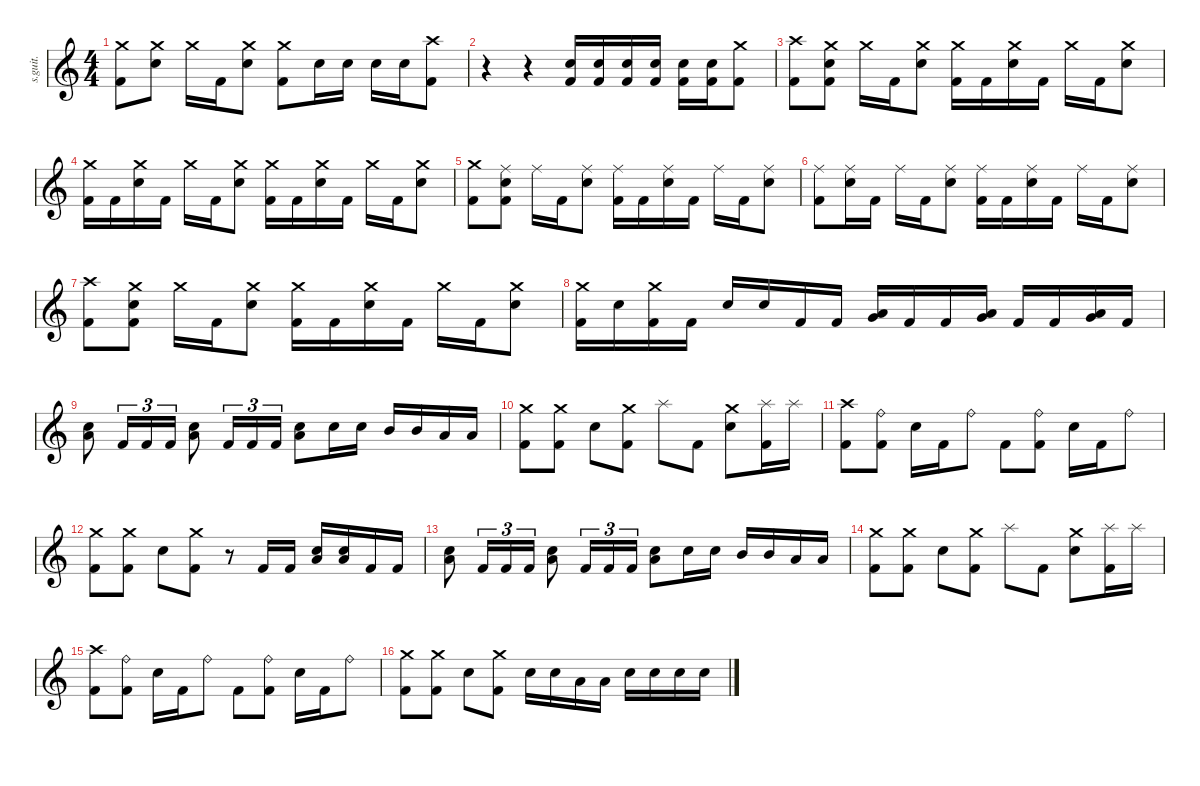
\defaultSystemsLayout 4
\hideDynamics
\bracketExtendMode nobrackets
\track ("The Rev" "s.guit.") {instrument percussion}
\staff {score}
\articulation defaults
\ts (4 4)
\tempo (125 hide)
\clef g2
\ks c
("Crash medium (hit)" "Kick (hit) 2").8{lyrics (0 "") lyrics (1 "") lyrics (2 "") lyrics (3 "") lyrics (4 "") dy f} ("Crash medium (hit)" "Electric Snare (hit)").8{lyrics (0 "") lyrics (1 "") lyrics (2 "") lyrics (3 "") lyrics (4 "")} "Crash medium (hit)".16{lyrics (0 "") lyrics (1 "") lyrics (2 "") lyrics (3 "") lyrics (4 "") dy mp} "Kick (hit) 2".16{lyrics (0 "") lyrics (1 "") lyrics (2 "") lyrics (3 "") lyrics (4 "") dy fff} ("Crash medium (hit)" "Electric Snare (hit)").8{lyrics (0 "") lyrics (1 "") lyrics (2 "") lyrics (3 "") lyrics (4 "") dy f} ("Crash medium (hit)" "Kick (hit) 2").8{lyrics (0 "") lyrics (1 "") lyrics (2 "") lyrics (3 "") lyrics (4 "")} "Electric Snare (hit)".16{lyrics (0 "") lyrics (1 "") lyrics (2 "") lyrics (3 "") lyrics (4 "")} "Electric Snare (hit)".16{lyrics (0 "") lyrics (1 "") lyrics (2 "") lyrics (3 "") lyrics (4 "")} "Electric Snare (hit)".16{lyrics (0 "") lyrics (1 "") lyrics (2 "") lyrics (3 "") lyrics (4 "")} "Electric Snare (hit)".16{lyrics (0 "") lyrics (1 "") lyrics (2 "") lyrics (3 "") lyrics (4 "")} ("Crash high (hit)" "Kick (hit) 2").8{lyrics (0 "") lyrics (1 "") lyrics (2 "") lyrics (3 "") lyrics (4 "")} |
r.4 r.4 ("Electric Snare (hit)" "Kick (hit) 2").16{lyrics (0 "") lyrics (1 "") lyrics (2 "") lyrics (3 "") lyrics (4 "")} ("Electric Snare (hit)" "Kick (hit) 2").16{lyrics (0 "") lyrics (1 "") lyrics (2 "") lyrics (3 "") lyrics (4 "")} ("Electric Snare (hit)" "Kick (hit) 2").16{lyrics (0 "") lyrics (1 "") lyrics (2 "") lyrics (3 "") lyrics (4 "")} ("Electric Snare (hit)" "Kick (hit) 2").16{lyrics (0 "") lyrics (1 "") lyrics (2 "") lyrics (3 "") lyrics (4 "")} ("Electric Snare (hit)" "Kick (hit) 2").16{lyrics (0 "") lyrics (1 "") lyrics (2 "") lyrics (3 "") lyrics (4 "")} ("Electric Snare (hit)" "Kick (hit) 2").16{lyrics (0 "") lyrics (1 "") lyrics (2 "") lyrics (3 "") lyrics (4 "")} ("Crash medium (hit)" "Kick (hit) 2").8{lyrics (0 "") lyrics (1 "") lyrics (2 "") lyrics (3 "") lyrics (4 "")} |
("Crash high (hit)" "Kick (hit) 2").8{lyrics (0 "") lyrics (1 "") lyrics (2 "") lyrics (3 "") lyrics (4 "") dy fff} ("Crash medium (hit)" "Electric Snare (hit)" "Kick (hit) 2").8{lyrics (0 "") lyrics (1 "") lyrics (2 "") lyrics (3 "") lyrics (4 "") dy f} "Crash medium (hit)".16{lyrics (0 "") lyrics (1 "") lyrics (2 "") lyrics (3 "") lyrics (4 "") dy mp} "Kick (hit) 2".16{lyrics (0 "") lyrics (1 "") lyrics (2 "") lyrics (3 "") lyrics (4 "") dy fff} ("Crash medium (hit)" "Electric Snare (hit)").8{lyrics (0 "") lyrics (1 "") lyrics (2 "") lyrics (3 "") lyrics (4 "") dy f} ("Crash medium (hit)" "Kick (hit) 2").16{lyrics (0 "") lyrics (1 "") lyrics (2 "") lyrics (3 "") lyrics (4 "") dy mp} "Kick (hit) 2".16{lyrics (0 "") lyrics (1 "") lyrics (2 "") lyrics (3 "") lyrics (4 "") dy fff} ("Crash medium (hit)" "Electric Snare (hit)").16{lyrics (0 "") lyrics (1 "") lyrics (2 "") lyrics (3 "") lyrics (4 "") dy f} "Kick (hit) 2".16{lyrics (0 "") lyrics (1 "") lyrics (2 "") lyrics (3 "") lyrics (4 "") dy fff} "Crash medium (hit)".16{lyrics (0 "") lyrics (1 "") lyrics (2 "") lyrics (3 "") lyrics (4 "") dy mp} "Kick (hit) 2".16{lyrics (0 "") lyrics (1 "") lyrics (2 "") lyrics (3 "") lyrics (4 "") dy fff} ("Crash medium (hit)" "Electric Snare (hit)").8{lyrics (0 "") lyrics (1 "") lyrics (2 "") lyrics (3 "") lyrics (4 "") dy f} |
("Crash medium (hit)" "Kick (hit) 2").16{lyrics (0 "") lyrics (1 "") lyrics (2 "") lyrics (3 "") lyrics (4 "") dy mp} "Kick (hit) 2".16{lyrics (0 "") lyrics (1 "") lyrics (2 "") lyrics (3 "") lyrics (4 "") dy fff} ("Crash medium (hit)" "Electric Snare (hit)").16{lyrics (0 "") lyrics (1 "") lyrics (2 "") lyrics (3 "") lyrics (4 "") dy f} "Kick (hit) 2".16{lyrics (0 "") lyrics (1 "") lyrics (2 "") lyrics (3 "") lyrics (4 "") dy fff} "Crash medium (hit)".16{lyrics (0 "") lyrics (1 "") lyrics (2 "") lyrics (3 "") lyrics (4 "") dy mp} "Kick (hit) 2".16{lyrics (0 "") lyrics (1 "") lyrics (2 "") lyrics (3 "") lyrics (4 "") dy fff} ("Crash medium (hit)" "Electric Snare (hit)").8{lyrics (0 "") lyrics (1 "") lyrics (2 "") lyrics (3 "") lyrics (4 "") dy f} ("Crash medium (hit)" "Kick (hit) 2").16{lyrics (0 "") lyrics (1 "") lyrics (2 "") lyrics (3 "") lyrics (4 "") dy mp} "Kick (hit) 2".16{lyrics (0 "") lyrics (1 "") lyrics (2 "") lyrics (3 "") lyrics (4 "") dy fff} ("Crash medium (hit)" "Electric Snare (hit)").16{lyrics (0 "") lyrics (1 "") lyrics (2 "") lyrics (3 "") lyrics (4 "") dy f} "Kick (hit) 2".16{lyrics (0 "") lyrics (1 "") lyrics (2 "") lyrics (3 "") lyrics (4 "") dy fff} "Crash medium (hit)".16{lyrics (0 "") lyrics (1 "") lyrics (2 "") lyrics (3 "") lyrics (4 "") dy mp} "Kick (hit) 2".16{lyrics (0 "") lyrics (1 "") lyrics (2 "") lyrics (3 "") lyrics (4 "") dy fff} ("Crash medium (hit)" "Electric Snare (hit)").8{lyrics (0 "") lyrics (1 "") lyrics (2 "") lyrics (3 "") lyrics (4 "") dy f} |
("Crash medium (hit)" "Kick (hit) 2").8{lyrics (0 "") lyrics (1 "") lyrics (2 "") lyrics (3 "") lyrics (4 "")} ("Ride (middle)" "Electric Snare (hit)" "Kick (hit) 2").8{lyrics (0 "") lyrics (1 "") lyrics (2 "") lyrics (3 "") lyrics (4 "")} "Ride (middle)".16{lyrics (0 "") lyrics (1 "") lyrics (2 "") lyrics (3 "") lyrics (4 "") dy mp} "Kick (hit) 2".16{lyrics (0 "") lyrics (1 "") lyrics (2 "") lyrics (3 "") lyrics (4 "") dy fff} ("Ride (middle)" "Electric Snare (hit)").8{lyrics (0 "") lyrics (1 "") lyrics (2 "") lyrics (3 "") lyrics (4 "") dy f} ("Ride (middle)" "Kick (hit) 2").16{lyrics (0 "") lyrics (1 "") lyrics (2 "") lyrics (3 "") lyrics (4 "") dy mp} "Kick (hit) 2".16{lyrics (0 "") lyrics (1 "") lyrics (2 "") lyrics (3 "") lyrics (4 "") dy fff} ("Ride (middle)" "Electric Snare (hit)").16{lyrics (0 "") lyrics (1 "") lyrics (2 "") lyrics (3 "") lyrics (4 "") dy f} "Kick (hit) 2".16{lyrics (0 "") lyrics (1 "") lyrics (2 "") lyrics (3 "") lyrics (4 "") dy fff} "Ride (middle)".16{lyrics (0 "") lyrics (1 "") lyrics (2 "") lyrics (3 "") lyrics (4 "") dy mp} "Kick (hit) 2".16{lyrics (0 "") lyrics (1 "") lyrics (2 "") lyrics (3 "") lyrics (4 "") dy fff} ("Ride (middle)" "Electric Snare (hit)").8{lyrics (0 "") lyrics (1 "") lyrics (2 "") lyrics (3 "") lyrics (4 "") dy f} |
("Ride (middle)" "Kick (hit) 2").8{lyrics (0 "") lyrics (1 "") lyrics (2 "") lyrics (3 "") lyrics (4 "") dy mp} ("Ride (middle)" "Electric Snare (hit)").16{lyrics (0 "") lyrics (1 "") lyrics (2 "") lyrics (3 "") lyrics (4 "") dy f} "Kick (hit) 2".16{lyrics (0 "") lyrics (1 "") lyrics (2 "") lyrics (3 "") lyrics (4 "") dy fff} "Ride (middle)".16{lyrics (0 "") lyrics (1 "") lyrics (2 "") lyrics (3 "") lyrics (4 "") dy mp} "Kick (hit) 2".16{lyrics (0 "") lyrics (1 "") lyrics (2 "") lyrics (3 "") lyrics (4 "") dy fff} ("Ride (middle)" "Electric Snare (hit)").8{lyrics (0 "") lyrics (1 "") lyrics (2 "") lyrics (3 "") lyrics (4 "") dy f} ("Ride (middle)" "Kick (hit) 2").16{lyrics (0 "") lyrics (1 "") lyrics (2 "") lyrics (3 "") lyrics (4 "") dy mp} "Kick (hit) 2".16{lyrics (0 "") lyrics (1 "") lyrics (2 "") lyrics (3 "") lyrics (4 "") dy fff} ("Ride (middle)" "Electric Snare (hit)").16{lyrics (0 "") lyrics (1 "") lyrics (2 "") lyrics (3 "") lyrics (4 "") dy f} "Kick (hit) 2".16{lyrics (0 "") lyrics (1 "") lyrics (2 "") lyrics (3 "") lyrics (4 "") dy fff} "Ride (middle)".16{lyrics (0 "") lyrics (1 "") lyrics (2 "") lyrics (3 "") lyrics (4 "") dy mp} "Kick (hit) 2".16{lyrics (0 "") lyrics (1 "") lyrics (2 "") lyrics (3 "") lyrics (4 "") dy fff} ("Ride (middle)" "Electric Snare (hit)").8{lyrics (0 "") lyrics (1 "") lyrics (2 "") lyrics (3 "") lyrics (4 "") dy f} |
("Crash high (hit)" "Kick (hit) 2").8{lyrics (0 "") lyrics (1 "") lyrics (2 "") lyrics (3 "") lyrics (4 "")} ("Crash medium (hit)" "Electric Snare (hit)" "Kick (hit) 2").8{lyrics (0 "") lyrics (1 "") lyrics (2 "") lyrics (3 "") lyrics (4 "")} "Crash medium (hit)".16{lyrics (0 "") lyrics (1 "") lyrics (2 "") lyrics (3 "") lyrics (4 "") dy mp} "Kick (hit) 2".16{lyrics (0 "") lyrics (1 "") lyrics (2 "") lyrics (3 "") lyrics (4 "") dy fff} ("Crash medium (hit)" "Electric Snare (hit)").8{lyrics (0 "") lyrics (1 "") lyrics (2 "") lyrics (3 "") lyrics (4 "") dy f} ("Crash medium (hit)" "Kick (hit) 2").16{lyrics (0 "") lyrics (1 "") lyrics (2 "") lyrics (3 "") lyrics (4 "") dy mp} "Kick (hit) 2".16{lyrics (0 "") lyrics (1 "") lyrics (2 "") lyrics (3 "") lyrics (4 "") dy fff} ("Crash medium (hit)" "Electric Snare (hit)").16{lyrics (0 "") lyrics (1 "") lyrics (2 "") lyrics (3 "") lyrics (4 "") dy f} "Kick (hit) 2".16{lyrics (0 "") lyrics (1 "") lyrics (2 "") lyrics (3 "") lyrics (4 "") dy fff} "Crash medium (hit)".16{lyrics (0 "") lyrics (1 "") lyrics (2 "") lyrics (3 "") lyrics (4 "") dy mp} "Kick (hit) 2".16{lyrics (0 "") lyrics (1 "") lyrics (2 "") lyrics (3 "") lyrics (4 "") dy fff} ("Crash medium (hit)" "Electric Snare (hit)").8{lyrics (0 "") lyrics (1 "") lyrics (2 "") lyrics (3 "") lyrics (4 "") dy f} |
("Crash medium (hit)" "Kick (hit) 2").16{lyrics (0 "") lyrics (1 "") lyrics (2 "") lyrics (3 "") lyrics (4 "") dy mp} "Electric Snare (hit)".16{lyrics (0 "") lyrics (1 "") lyrics (2 "") lyrics (3 "") lyrics (4 "") dy f} ("Crash medium (hit)" "Kick (hit) 2").16{lyrics (0 "") lyrics (1 "") lyrics (2 "") lyrics (3 "") lyrics (4 "") dy mp} "Kick (hit) 2".16{lyrics (0 "") lyrics (1 "") lyrics (2 "") lyrics (3 "") lyrics (4 "") dy fff} "Electric Snare (hit)".16{lyrics (0 "") lyrics (1 "") lyrics (2 "") lyrics (3 "") lyrics (4 "") dy ff} "Electric Snare (hit)".16{lyrics (0 "") lyrics (1 "") lyrics (2 "") lyrics (3 "") lyrics (4 "")} "Kick (hit) 2".16{lyrics (0 "") lyrics (1 "") lyrics (2 "") lyrics (3 "") lyrics (4 "") dy fff} "Kick (hit) 2".16{lyrics (0 "") lyrics (1 "") lyrics (2 "") lyrics (3 "") lyrics (4 "")} ("Very Low Tom (hit)" "Low Floor Tom (hit)").16{lyrics (0 "") lyrics (1 "") lyrics (2 "") lyrics (3 "") lyrics (4 "") dy f} "Kick (hit) 2".16{lyrics (0 "") lyrics (1 "") lyrics (2 "") lyrics (3 "") lyrics (4 "") dy fff} "Kick (hit) 2".16{lyrics (0 "") lyrics (1 "") lyrics (2 "") lyrics (3 "") lyrics (4 "")} ("Very Low Tom (hit)" "Low Floor Tom (hit)").16{lyrics (0 "") lyrics (1 "") lyrics (2 "") lyrics (3 "") lyrics (4 "") dy f} "Kick (hit) 2".16{lyrics (0 "") lyrics (1 "") lyrics (2 "") lyrics (3 "") lyrics (4 "") dy fff} "Kick (hit) 2".16{lyrics (0 "") lyrics (1 "") lyrics (2 "") lyrics (3 "") lyrics (4 "")} ("Very Low Tom (hit)" "Low Floor Tom (hit)").16{lyrics (0 "") lyrics (1 "") lyrics (2 "") lyrics (3 "") lyrics (4 "") dy f} "Kick (hit) 2".16{lyrics (0 "") lyrics (1 "") lyrics (2 "") lyrics (3 "") lyrics (4 "") dy fff} |
("Electric Snare (hit)" "Low Floor Tom (hit)").8{lyrics (0 "") lyrics (1 "") lyrics (2 "") lyrics (3 "") lyrics (4 "") dy f} "Kick (hit) 2".16{tu (3 2) lyrics (0 "") lyrics (1 "") lyrics (2 "") lyrics (3 "") lyrics (4 "") dy fff} "Kick (hit) 2".16{tu (3 2) lyrics (0 "") lyrics (1 "") lyrics (2 "") lyrics (3 "") lyrics (4 "")} "Kick (hit) 2".16{tu (3 2) lyrics (0 "") lyrics (1 "") lyrics (2 "") lyrics (3 "") lyrics (4 "")} ("Electric Snare (hit)" "Low Floor Tom (hit)").8{lyrics (0 "") lyrics (1 "") lyrics (2 "") lyrics (3 "") lyrics (4 "") dy f} "Kick (hit) 2".16{tu (3 2) lyrics (0 "") lyrics (1 "") lyrics (2 "") lyrics (3 "") lyrics (4 "") dy fff} "Kick (hit) 2".16{tu (3 2) lyrics (0 "") lyrics (1 "") lyrics (2 "") lyrics (3 "") lyrics (4 "")} "Kick (hit) 2".16{tu (3 2) lyrics (0 "") lyrics (1 "") lyrics (2 "") lyrics (3 "") lyrics (4 "")} ("Electric Snare (hit)" "Low Floor Tom (hit)").8{lyrics (0 "") lyrics (1 "") lyrics (2 "") lyrics (3 "") lyrics (4 "") dy f} "Electric Snare (hit)".16{lyrics (0 "") lyrics (1 "") lyrics (2 "") lyrics (3 "") lyrics (4 "") dy ff} "Electric Snare (hit)".16{lyrics (0 "") lyrics (1 "") lyrics (2 "") lyrics (3 "") lyrics (4 "")} "Mid Tom (hit)".16{lyrics (0 "") lyrics (1 "") lyrics (2 "") lyrics (3 "") lyrics (4 "") dy fff} "Mid Tom (hit)".16{lyrics (0 "") lyrics (1 "") lyrics (2 "") lyrics (3 "") lyrics (4 "")} "Low Tom (hit)".16{lyrics (0 "") lyrics (1 "") lyrics (2 "") lyrics (3 "") lyrics (4 "")} "Low Tom (hit)".16{lyrics (0 "") lyrics (1 "") lyrics (2 "") lyrics (3 "") lyrics (4 "")} |
("Crash medium (hit)" "Kick (hit) 2").8{lyrics (0 "") lyrics (1 "") lyrics (2 "") lyrics (3 "") lyrics (4 "")} ("Crash medium (hit)" "Kick (hit) 2").8{lyrics (0 "") lyrics (1 "") lyrics (2 "") lyrics (3 "") lyrics (4 "")} "Electric Snare (hit)".8{lyrics (0 "") lyrics (1 "") lyrics (2 "") lyrics (3 "") lyrics (4 "") dy f} ("Crash medium (hit)" "Kick (hit) 2").8{lyrics (0 "") lyrics (1 "") lyrics (2 "") lyrics (3 "") lyrics (4 "")} "Splash (hit)".8{lyrics (0 "") lyrics (1 "") lyrics (2 "") lyrics (3 "") lyrics (4 "") dy mf} "Kick (hit) 2".8{lyrics (0 "") lyrics (1 "") lyrics (2 "") lyrics (3 "") lyrics (4 "") dy fff} ("Crash medium (hit)" "Electric Snare (hit)").8{lyrics (0 "") lyrics (1 "") lyrics (2 "") lyrics (3 "") lyrics (4 "") dy f} ("Splash (hit)" "Kick (hit) 2").16{lyrics (0 "") lyrics (1 "") lyrics (2 "") lyrics (3 "") lyrics (4 "") dy mf} "Splash (hit)".16{lyrics (0 "") lyrics (1 "") lyrics (2 "") lyrics (3 "") lyrics (4 "")} |
("Crash high (hit)" "Kick (hit) 2").8{lyrics (0 "") lyrics (1 "") lyrics (2 "") lyrics (3 "") lyrics (4 "") dy f} ("Ride (bell)" "Kick (hit) 2").8{lyrics (0 "") lyrics (1 "") lyrics (2 "") lyrics (3 "") lyrics (4 "")} "Electric Snare (hit)".16{lyrics (0 "") lyrics (1 "") lyrics (2 "") lyrics (3 "") lyrics (4 "")} "Kick (hit) 2".16{lyrics (0 "") lyrics (1 "") lyrics (2 "") lyrics (3 "") lyrics (4 "") dy fff} "Ride (bell)".8{lyrics (0 "") lyrics (1 "") lyrics (2 "") lyrics (3 "") lyrics (4 "") dy f} "Kick (hit) 2".8{lyrics (0 "") lyrics (1 "") lyrics (2 "") lyrics (3 "") lyrics (4 "") dy fff} ("Ride (bell)" "Kick (hit) 2").8{lyrics (0 "") lyrics (1 "") lyrics (2 "") lyrics (3 "") lyrics (4 "")} "Electric Snare (hit)".16{lyrics (0 "") lyrics (1 "") lyrics (2 "") lyrics (3 "") lyrics (4 "") dy f} "Kick (hit) 2".16{lyrics (0 "") lyrics (1 "") lyrics (2 "") lyrics (3 "") lyrics (4 "") dy fff} "Ride (bell)".8{lyrics (0 "") lyrics (1 "") lyrics (2 "") lyrics (3 "") lyrics (4 "") dy f} |
("Crash medium (hit)" "Kick (hit) 2").8{lyrics (0 "") lyrics (1 "") lyrics (2 "") lyrics (3 "") lyrics (4 "")} ("Crash medium (hit)" "Kick (hit) 2").8{lyrics (0 "") lyrics (1 "") lyrics (2 "") lyrics (3 "") lyrics (4 "")} "Electric Snare (hit)".8{lyrics (0 "") lyrics (1 "") lyrics (2 "") lyrics (3 "") lyrics (4 "")} ("Crash medium (hit)" "Kick (hit) 2").8{lyrics (0 "") lyrics (1 "") lyrics (2 "") lyrics (3 "") lyrics (4 "")} r.8 "Kick (hit) 2".16{lyrics (0 "") lyrics (1 "") lyrics (2 "") lyrics (3 "") lyrics (4 "") dy fff} "Kick (hit) 2".16{lyrics (0 "") lyrics (1 "") lyrics (2 "") lyrics (3 "") lyrics (4 "")} ("Electric Snare (hit)" "Low Floor Tom (hit)").16{lyrics (0 "") lyrics (1 "") lyrics (2 "") lyrics (3 "") lyrics (4 "") dy f} ("Electric Snare (hit)" "Low Floor Tom (hit)").16{lyrics (0 "") lyrics (1 "") lyrics (2 "") lyrics (3 "") lyrics (4 "")} "Kick (hit) 2".16{lyrics (0 "") lyrics (1 "") lyrics (2 "") lyrics (3 "") lyrics (4 "") dy fff} "Kick (hit) 2".16{lyrics (0 "") lyrics (1 "") lyrics (2 "") lyrics (3 "") lyrics (4 "")} |
("Electric Snare (hit)" "Low Floor Tom (hit)").8{lyrics (0 "") lyrics (1 "") lyrics (2 "") lyrics (3 "") lyrics (4 "") dy f} "Kick (hit) 2".16{tu (3 2) lyrics (0 "") lyrics (1 "") lyrics (2 "") lyrics (3 "") lyrics (4 "") dy fff} "Kick (hit) 2".16{tu (3 2) lyrics (0 "") lyrics (1 "") lyrics (2 "") lyrics (3 "") lyrics (4 "")} "Kick (hit) 2".16{tu (3 2) lyrics (0 "") lyrics (1 "") lyrics (2 "") lyrics (3 "") lyrics (4 "")} ("Electric Snare (hit)" "Low Floor Tom (hit)").8{lyrics (0 "") lyrics (1 "") lyrics (2 "") lyrics (3 "") lyrics (4 "") dy f} "Kick (hit) 2".16{tu (3 2) lyrics (0 "") lyrics (1 "") lyrics (2 "") lyrics (3 "") lyrics (4 "") dy fff} "Kick (hit) 2".16{tu (3 2) lyrics (0 "") lyrics (1 "") lyrics (2 "") lyrics (3 "") lyrics (4 "")} "Kick (hit) 2".16{tu (3 2) lyrics (0 "") lyrics (1 "") lyrics (2 "") lyrics (3 "") lyrics (4 "")} ("Electric Snare (hit)" "Low Floor Tom (hit)").8{lyrics (0 "") lyrics (1 "") lyrics (2 "") lyrics (3 "") lyrics (4 "") dy f} "Electric Snare (hit)".16{lyrics (0 "") lyrics (1 "") lyrics (2 "") lyrics (3 "") lyrics (4 "") dy ff} "Electric Snare (hit)".16{lyrics (0 "") lyrics (1 "") lyrics (2 "") lyrics (3 "") lyrics (4 "")} "Mid Tom (hit)".16{lyrics (0 "") lyrics (1 "") lyrics (2 "") lyrics (3 "") lyrics (4 "") dy fff} "Mid Tom (hit)".16{lyrics (0 "") lyrics (1 "") lyrics (2 "") lyrics (3 "") lyrics (4 "")} "Low Tom (hit)".16{lyrics (0 "") lyrics (1 "") lyrics (2 "") lyrics (3 "") lyrics (4 "")} "Low Tom (hit)".16{lyrics (0 "") lyrics (1 "") lyrics (2 "") lyrics (3 "") lyrics (4 "")} |
("Crash medium (hit)" "Kick (hit) 2").8{lyrics (0 "") lyrics (1 "") lyrics (2 "") lyrics (3 "") lyrics (4 "")} ("Crash medium (hit)" "Kick (hit) 2").8{lyrics (0 "") lyrics (1 "") lyrics (2 "") lyrics (3 "") lyrics (4 "")} "Electric Snare (hit)".8{lyrics (0 "") lyrics (1 "") lyrics (2 "") lyrics (3 "") lyrics (4 "") dy f} ("Crash medium (hit)" "Kick (hit) 2").8{lyrics (0 "") lyrics (1 "") lyrics (2 "") lyrics (3 "") lyrics (4 "")} "Splash (hit)".8{lyrics (0 "") lyrics (1 "") lyrics (2 "") lyrics (3 "") lyrics (4 "") dy mf} "Kick (hit) 2".8{lyrics (0 "") lyrics (1 "") lyrics (2 "") lyrics (3 "") lyrics (4 "") dy fff} ("Crash medium (hit)" "Electric Snare (hit)").8{lyrics (0 "") lyrics (1 "") lyrics (2 "") lyrics (3 "") lyrics (4 "") dy f} ("Splash (hit)" "Kick (hit) 2").16{lyrics (0 "") lyrics (1 "") lyrics (2 "") lyrics (3 "") lyrics (4 "") dy mf} "Splash (hit)".16{lyrics (0 "") lyrics (1 "") lyrics (2 "") lyrics (3 "") lyrics (4 "")} |
("Crash high (hit)" "Kick (hit) 2").8{lyrics (0 "") lyrics (1 "") lyrics (2 "") lyrics (3 "") lyrics (4 "") dy f} ("Ride (bell)" "Kick (hit) 2").8{lyrics (0 "") lyrics (1 "") lyrics (2 "") lyrics (3 "") lyrics (4 "")} "Electric Snare (hit)".16{lyrics (0 "") lyrics (1 "") lyrics (2 "") lyrics (3 "") lyrics (4 "")} "Kick (hit) 2".16{lyrics (0 "") lyrics (1 "") lyrics (2 "") lyrics (3 "") lyrics (4 "") dy fff} "Ride (bell)".8{lyrics (0 "") lyrics (1 "") lyrics (2 "") lyrics (3 "") lyrics (4 "") dy f} "Kick (hit) 2".8{lyrics (0 "") lyrics (1 "") lyrics (2 "") lyrics (3 "") lyrics (4 "") dy fff} ("Ride (bell)" "Kick (hit) 2").8{lyrics (0 "") lyrics (1 "") lyrics (2 "") lyrics (3 "") lyrics (4 "")} "Electric Snare (hit)".16{lyrics (0 "") lyrics (1 "") lyrics (2 "") lyrics (3 "") lyrics (4 "") dy f} "Kick (hit) 2".16{lyrics (0 "") lyrics (1 "") lyrics (2 "") lyrics (3 "") lyrics (4 "") dy fff} "Ride (bell)".8{lyrics (0 "") lyrics (1 "") lyrics (2 "") lyrics (3 "") lyrics (4 "") dy f} |
("Crash medium (hit)" "Kick (hit) 2").8{lyrics (0 "") lyrics (1 "") lyrics (2 "") lyrics (3 "") lyrics (4 "")} ("Crash medium (hit)" "Kick (hit) 2").8{lyrics (0 "") lyrics (1 "") lyrics (2 "") lyrics (3 "") lyrics (4 "")} "Electric Snare (hit)".8{lyrics (0 "") lyrics (1 "") lyrics (2 "") lyrics (3 "") lyrics (4 "")} ("Crash medium (hit)" "Kick (hit) 2").8{lyrics (0 "") lyrics (1 "") lyrics (2 "") lyrics (3 "") lyrics (4 "")} "Electric Snare (hit)".16{lyrics (0 "") lyrics (1 "") lyrics (2 "") lyrics (3 "") lyrics (4 "") dy ff} "Electric Snare (hit)".16{lyrics (0 "") lyrics (1 "") lyrics (2 "") lyrics (3 "") lyrics (4 "")} "Low Tom (hit)".16{lyrics (0 "") lyrics (1 "") lyrics (2 "") lyrics (3 "") lyrics (4 "") dy fff} "Low Tom (hit)".16{lyrics (0 "") lyrics (1 "") lyrics (2 "") lyrics (3 "") lyrics (4 "")} "Electric Snare (hit)".16{lyrics (0 "") lyrics (1 "") lyrics (2 "") lyrics (3 "") lyrics (4 "") dy ff} "Electric Snare (hit)".16{lyrics (0 "") lyrics (1 "") lyrics (2 "") lyrics (3 "") lyrics (4 "")} "Electric Snare (hit)".16{lyrics (0 "") lyrics (1 "") lyrics (2 "") lyrics (3 "") lyrics (4 "")} "Electric Snare (hit)".16{lyrics (0 "") lyrics (1 "") lyrics (2 "") lyrics (3 "") lyrics (4 "")}
